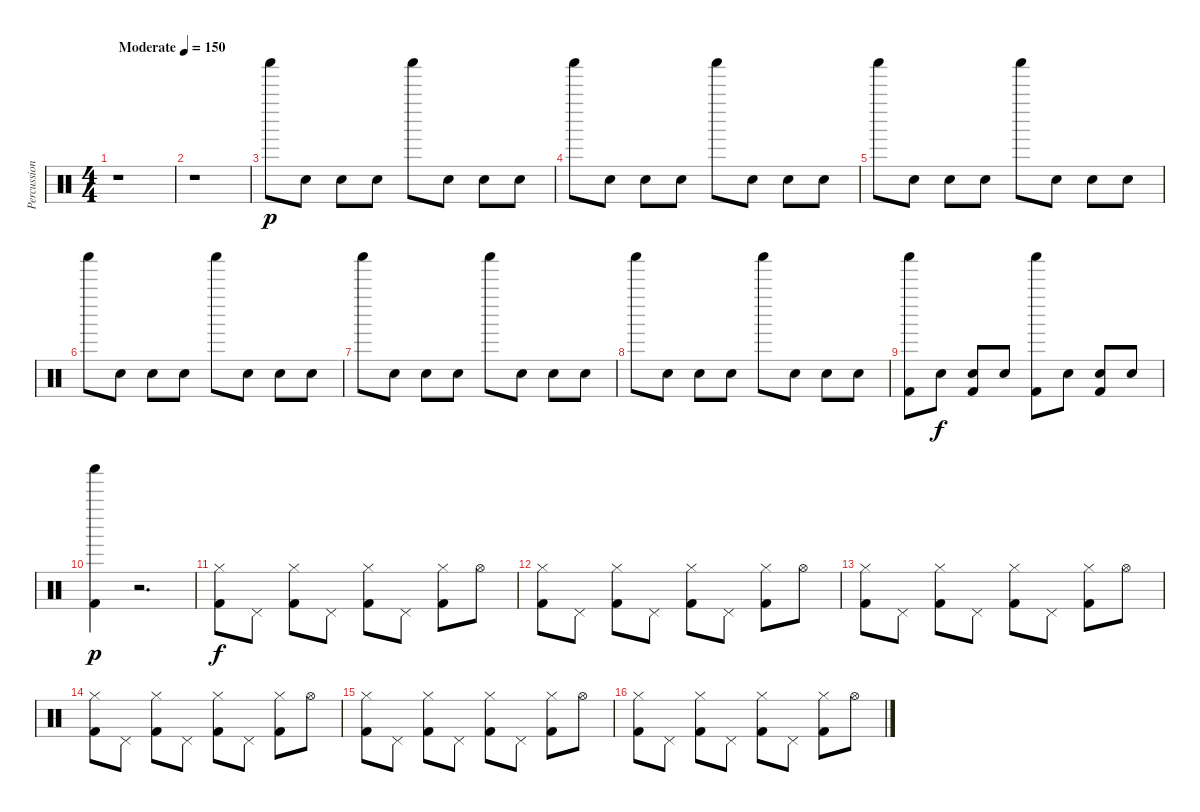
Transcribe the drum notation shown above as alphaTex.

\track ("Percussions" "Percussion") {instrument percussion}
\staff {score}
\articulation defaults
\ts (4 4)
\tempo (150 "Moderate")
\clef neutral
\ks c
r.1{dy p} |
r.1 |
"Shaker (hit)".8 "Hand Clap (hit)".8 "Hand Clap (hit)".8 "Hand Clap (hit)".8 "Shaker (hit)".8 "Hand Clap (hit)".8 "Hand Clap (hit)".8 "Hand Clap (hit)".8 |
"Shaker (hit)".8 "Hand Clap (hit)".8 "Hand Clap (hit)".8 "Hand Clap (hit)".8 "Shaker (hit)".8 "Hand Clap (hit)".8 "Hand Clap (hit)".8 "Hand Clap (hit)".8 |
"Shaker (hit)".8 "Hand Clap (hit)".8 "Hand Clap (hit)".8 "Hand Clap (hit)".8 "Shaker (hit)".8 "Hand Clap (hit)".8 "Hand Clap (hit)".8 "Hand Clap (hit)".8 |
"Shaker (hit)".8 "Hand Clap (hit)".8 "Hand Clap (hit)".8 "Hand Clap (hit)".8 "Shaker (hit)".8 "Hand Clap (hit)".8 "Hand Clap (hit)".8 "Hand Clap (hit)".8 |
"Shaker (hit)".8 "Hand Clap (hit)".8 "Hand Clap (hit)".8 "Hand Clap (hit)".8 "Shaker (hit)".8 "Hand Clap (hit)".8 "Hand Clap (hit)".8 "Hand Clap (hit)".8 |
"Shaker (hit)".8 "Hand Clap (hit)".8 "Hand Clap (hit)".8 "Hand Clap (hit)".8 "Shaker (hit)".8 "Hand Clap (hit)".8 "Hand Clap (hit)".8 "Hand Clap (hit)".8 |
("Shaker (hit)" "Kick (hit) 2").8 "Hand Clap (hit)".8{dy f} ("Hand Clap (hit)" "Kick (hit) 2").8 "Hand Clap (hit)".8 ("Shaker (hit)" "Kick (hit) 2").8 "Hand Clap (hit)".8 ("Hand Clap (hit)" "Kick (hit) 2").8 "Hand Clap (hit)".8 |
("Shaker (hit)" "Kick (hit) 2").4{dy p} r.2{d} |
("Hi-Hat (closed)" "Kick (hit) 2").8{dy f} "Pedal Hi-Hat (hit)".8 ("Hi-Hat (closed)" "Kick (hit) 2").8 "Pedal Hi-Hat (hit)".8 ("Hi-Hat (closed)" "Kick (hit) 2").8 "Pedal Hi-Hat (hit)".8 ("Hi-Hat (closed)" "Kick (hit) 2").8 "Hi-Hat (open)".8 |
("Hi-Hat (closed)" "Kick (hit) 2").8 "Pedal Hi-Hat (hit)".8 ("Hi-Hat (closed)" "Kick (hit) 2").8 "Pedal Hi-Hat (hit)".8 ("Hi-Hat (closed)" "Kick (hit) 2").8 "Pedal Hi-Hat (hit)".8 ("Hi-Hat (closed)" "Kick (hit) 2").8 "Hi-Hat (open)".8 |
("Hi-Hat (closed)" "Kick (hit) 2").8 "Pedal Hi-Hat (hit)".8 ("Hi-Hat (closed)" "Kick (hit) 2").8 "Pedal Hi-Hat (hit)".8 ("Hi-Hat (closed)" "Kick (hit) 2").8 "Pedal Hi-Hat (hit)".8 ("Hi-Hat (closed)" "Kick (hit) 2").8 "Hi-Hat (open)".8 |
("Hi-Hat (closed)" "Kick (hit) 2").8 "Pedal Hi-Hat (hit)".8 ("Hi-Hat (closed)" "Kick (hit) 2").8 "Pedal Hi-Hat (hit)".8 ("Hi-Hat (closed)" "Kick (hit) 2").8 "Pedal Hi-Hat (hit)".8 ("Hi-Hat (closed)" "Kick (hit) 2").8 "Hi-Hat (open)".8 |
("Hi-Hat (closed)" "Kick (hit) 2").8 "Pedal Hi-Hat (hit)".8 ("Hi-Hat (closed)" "Kick (hit) 2").8 "Pedal Hi-Hat (hit)".8 ("Hi-Hat (closed)" "Kick (hit) 2").8 "Pedal Hi-Hat (hit)".8 ("Hi-Hat (closed)" "Kick (hit) 2").8 "Hi-Hat (open)".8 |
("Hi-Hat (closed)" "Kick (hit) 2").8 "Pedal Hi-Hat (hit)".8 ("Hi-Hat (closed)" "Kick (hit) 2").8 "Pedal Hi-Hat (hit)".8 ("Hi-Hat (closed)" "Kick (hit) 2").8 "Pedal Hi-Hat (hit)".8 ("Hi-Hat (closed)" "Kick (hit) 2").8 "Hi-Hat (open)".8
